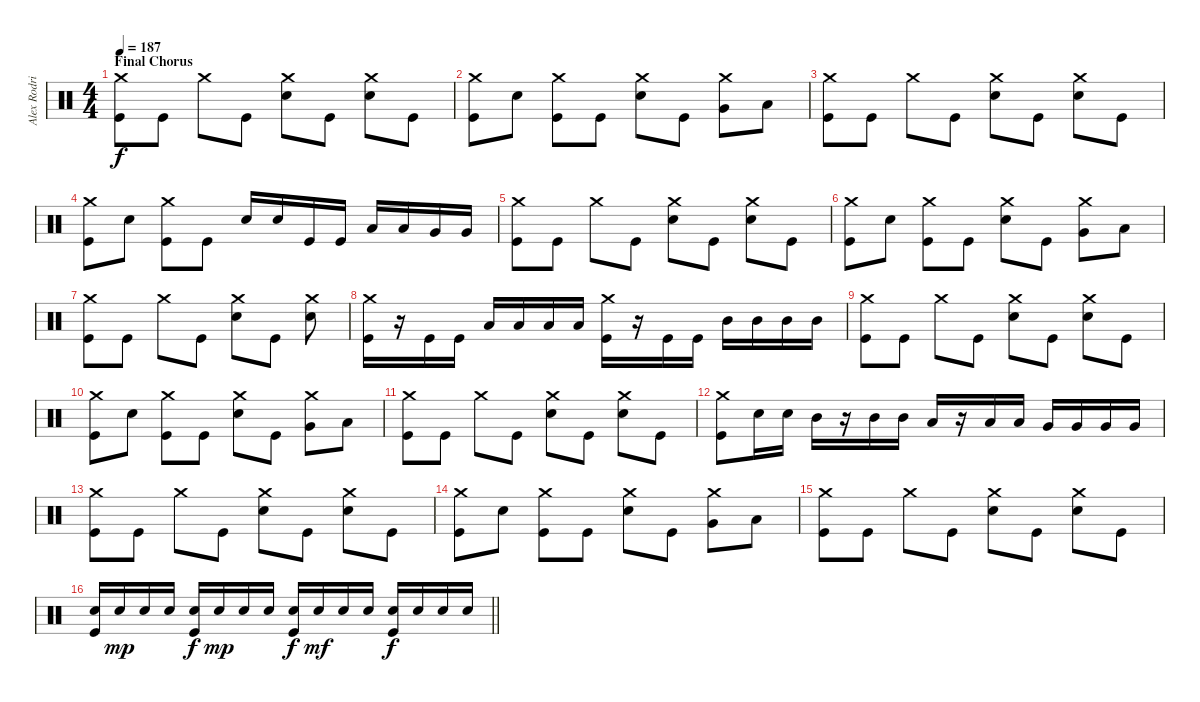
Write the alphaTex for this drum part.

\track ("Alex Rodriguez" "Alex Rodri") {instrument percussion}
\staff {score}
\articulation defaults
\ts (4 4)
\section ("" "Final Chorus")
\tempo 187
\clef neutral
\ks c
("Crash medium (hit)" "Kick (hit)").8{dy f} "Kick (hit)".8 "Crash medium (hit)".8 "Kick (hit)".8 ("Crash medium (hit)" "Electric Snare (hit)").8 "Kick (hit)".8 ("Crash medium (hit)" "Electric Snare (hit)").8 "Kick (hit)".8 |
("Crash medium (hit)" "Kick (hit)").8 "Electric Snare (hit)".8 ("Crash medium (hit)" "Kick (hit)").8 "Kick (hit)".8 ("Crash medium (hit)" "Electric Snare (hit)").8 "Kick (hit)".8 ("Crash medium (hit)" "Very Low Tom (hit)").8 "Low Floor Tom (hit)".8 |
("Crash medium (hit)" "Kick (hit)").8 "Kick (hit)".8 "Crash medium (hit)".8 "Kick (hit)".8 ("Crash medium (hit)" "Electric Snare (hit)").8 "Kick (hit)".8 ("Crash medium (hit)" "Electric Snare (hit)").8 "Kick (hit)".8 |
("Crash medium (hit)" "Kick (hit)").8 "Electric Snare (hit)".8 ("Crash medium (hit)" "Kick (hit)").8 "Kick (hit)".8 "Electric Snare (hit)".16 "Electric Snare (hit)".16 "Kick (hit)".16 "Kick (hit)".16 "Low Tom (hit)".16 "Low Tom (hit)".16 "Very Low Tom (hit)".16 "Very Low Tom (hit)".16 |
("Crash medium (hit)" "Kick (hit)").8 "Kick (hit)".8 "Crash medium (hit)".8 "Kick (hit)".8 ("Crash medium (hit)" "Electric Snare (hit)").8 "Kick (hit)".8 ("Crash medium (hit)" "Electric Snare (hit)").8 "Kick (hit)".8 |
("Crash medium (hit)" "Kick (hit)").8 "Electric Snare (hit)".8 ("Crash medium (hit)" "Kick (hit)").8 "Kick (hit)".8 ("Crash medium (hit)" "Electric Snare (hit)").8 "Kick (hit)".8 ("Crash medium (hit)" "Very Low Tom (hit)").8 "Low Floor Tom (hit)".8 |
("Crash medium (hit)" "Kick (hit)").8 "Kick (hit)".8 "Crash medium (hit)".8 "Kick (hit)".8 ("Crash medium (hit)" "Electric Snare (hit)").8 "Kick (hit)".8 ("Crash medium (hit)" "Electric Snare (hit)").8 |
("Crash medium (hit)" "Kick (hit)").16 r.16 "Kick (hit)".16 "Kick (hit)".16 "Low Tom (hit)".16 "Low Tom (hit)".16 "Low Tom (hit)".16 "Low Tom (hit)".16 ("Crash medium (hit)" "Kick (hit)").16 r.16 "Kick (hit)".16 "Kick (hit)".16 "Mid Tom (hit)".16 "Mid Tom (hit)".16 "Mid Tom (hit)".16 "Mid Tom (hit)".16 |
("Crash medium (hit)" "Kick (hit)").8 "Kick (hit)".8 "Crash medium (hit)".8 "Kick (hit)".8 ("Crash medium (hit)" "Electric Snare (hit)").8 "Kick (hit)".8 ("Crash medium (hit)" "Electric Snare (hit)").8 "Kick (hit)".8 |
("Crash medium (hit)" "Kick (hit)").8 "Electric Snare (hit)".8 ("Crash medium (hit)" "Kick (hit)").8 "Kick (hit)".8 ("Crash medium (hit)" "Electric Snare (hit)").8 "Kick (hit)".8 ("Crash medium (hit)" "Very Low Tom (hit)").8 "Low Floor Tom (hit)".8 |
("Crash medium (hit)" "Kick (hit)").8 "Kick (hit)".8 "Crash medium (hit)".8 "Kick (hit)".8 ("Crash medium (hit)" "Electric Snare (hit)").8 "Kick (hit)".8 ("Crash medium (hit)" "Electric Snare (hit)").8 "Kick (hit)".8 |
("Crash medium (hit)" "Kick (hit)").8 "Electric Snare (hit)".16 "Electric Snare (hit)".16 "Mid Tom (hit)".16 r.16 "Mid Tom (hit)".16 "Mid Tom (hit)".16 "Low Tom (hit)".16 r.16 "Low Tom (hit)".16 "Low Tom (hit)".16 "Very Low Tom (hit)".16 "Very Low Tom (hit)".16 "Very Low Tom (hit)".16 "Very Low Tom (hit)".16 |
("Crash medium (hit)" "Kick (hit)").8 "Kick (hit)".8 "Crash medium (hit)".8 "Kick (hit)".8 ("Crash medium (hit)" "Electric Snare (hit)").8 "Kick (hit)".8 ("Crash medium (hit)" "Electric Snare (hit)").8 "Kick (hit)".8 |
("Crash medium (hit)" "Kick (hit)").8 "Electric Snare (hit)".8 ("Crash medium (hit)" "Kick (hit)").8 "Kick (hit)".8 ("Crash medium (hit)" "Electric Snare (hit)").8 "Kick (hit)".8 ("Crash medium (hit)" "Very Low Tom (hit)").8 "Low Floor Tom (hit)".8 |
("Crash medium (hit)" "Kick (hit)").8 "Kick (hit)".8 "Crash medium (hit)".8 "Kick (hit)".8 ("Crash medium (hit)" "Electric Snare (hit)").8 "Kick (hit)".8 ("Crash medium (hit)" "Electric Snare (hit)").8 "Kick (hit)".8 |
\barLineRight lightlight
("Electric Snare (hit)" "Kick (hit)").16 "Electric Snare (hit)".16{dy mp} "Electric Snare (hit)".16 "Electric Snare (hit)".16 ("Electric Snare (hit)" "Kick (hit)").16{dy f} "Electric Snare (hit)".16{dy mp} "Electric Snare (hit)".16 "Electric Snare (hit)".16 ("Electric Snare (hit)" "Kick (hit)").16{dy f} "Electric Snare (hit)".16{dy mf} "Electric Snare (hit)".16 "Electric Snare (hit)".16 ("Electric Snare (hit)" "Kick (hit)").16{dy f} "Electric Snare (hit)".16 "Electric Snare (hit)".16 "Electric Snare (hit)".16
